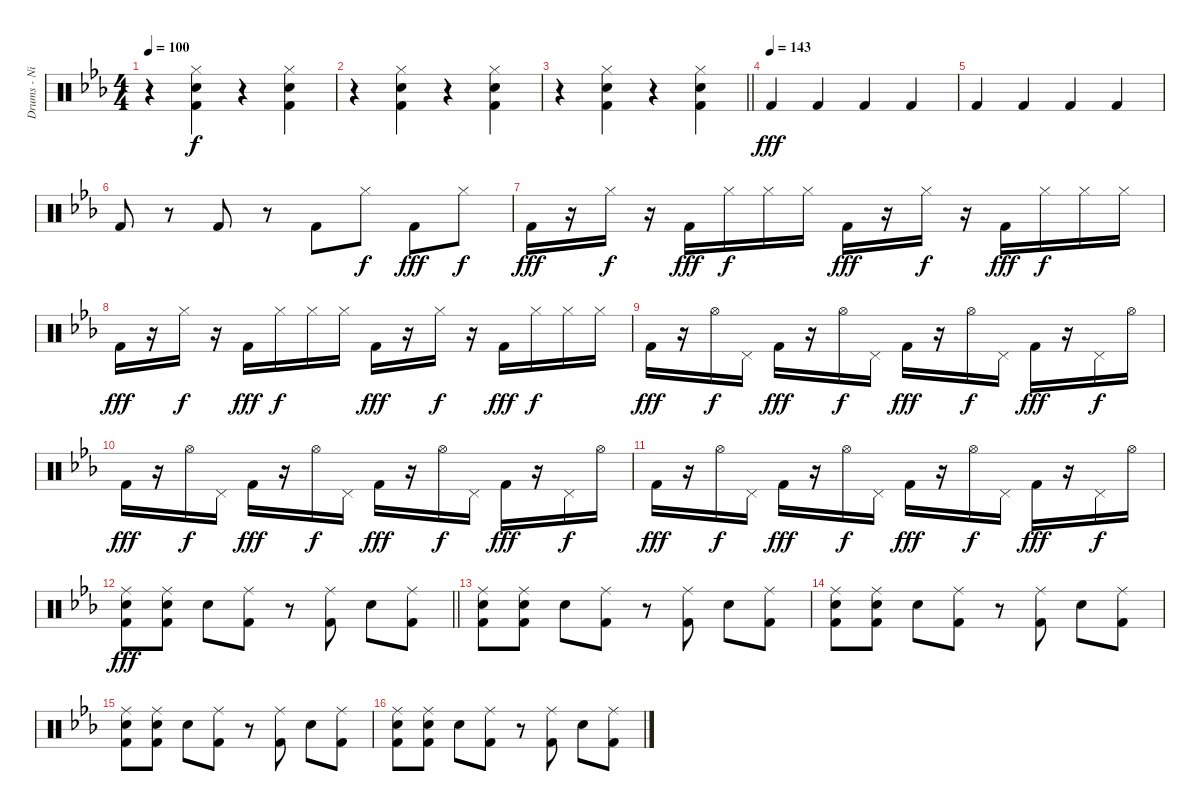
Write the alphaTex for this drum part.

\track ("Drums - Nigel Olsen" "Drums - Ni") {instrument percussion}
\staff {score}
\articulation defaults
\ts (4 4)
\tempo 100
\clef neutral
\ks cminor
r.4{dy f} ("Hi-Hat (closed)" "Snare (hit) 2" "Kick (hit) 2").4 r.4 ("Hi-Hat (closed)" "Snare (hit) 2" "Kick (hit) 2").4 |
r.4 ("Hi-Hat (closed)" "Snare (hit) 2" "Kick (hit) 2").4 r.4 ("Hi-Hat (closed)" "Snare (hit) 2" "Kick (hit) 2").4 |
\barLineRight lightlight
r.4 ("Hi-Hat (closed)" "Snare (hit) 2" "Kick (hit) 2").4 r.4 ("Hi-Hat (closed)" "Snare (hit) 2" "Kick (hit) 2").4 |
\tempo (143)
"Kick (hit) 2".4{dy fff} "Kick (hit) 2".4 "Kick (hit) 2".4 "Kick (hit) 2".4 |
"Kick (hit) 2".4 "Kick (hit) 2".4 "Kick (hit) 2".4 "Kick (hit) 2".4 |
"Kick (hit) 2".8 r.8 "Kick (hit) 2".8 r.8 "Kick (hit) 2".8 "Hi-Hat (closed)".8{dy f} "Kick (hit) 2".8{dy fff} "Hi-Hat (closed)".8{dy f} |
"Kick (hit) 2".16{dy fff} r.16 "Hi-Hat (closed)".16{dy f} r.16 "Kick (hit) 2".16{dy fff} "Hi-Hat (closed)".16{dy f} "Hi-Hat (closed)".16 "Hi-Hat (closed)".16 "Kick (hit) 2".16{dy fff} r.16 "Hi-Hat (closed)".16{dy f} r.16 "Kick (hit) 2".16{dy fff} "Hi-Hat (closed)".16{dy f} "Hi-Hat (closed)".16 "Hi-Hat (closed)".16 |
"Kick (hit) 2".16{dy fff} r.16 "Hi-Hat (closed)".16{dy f} r.16 "Kick (hit) 2".16{dy fff} "Hi-Hat (closed)".16{dy f} "Hi-Hat (closed)".16 "Hi-Hat (closed)".16 "Kick (hit) 2".16{dy fff} r.16 "Hi-Hat (closed)".16{dy f} r.16 "Kick (hit) 2".16{dy fff} "Hi-Hat (closed)".16{dy f} "Hi-Hat (closed)".16 "Hi-Hat (closed)".16 |
"Kick (hit) 2".16{dy fff} r.16 "Hi-Hat (open)".16{dy f} "Pedal Hi-Hat (hit)".16 "Kick (hit) 2".16{dy fff} r.16 "Hi-Hat (open)".16{dy f} "Pedal Hi-Hat (hit)".16 "Kick (hit) 2".16{dy fff} r.16 "Hi-Hat (open)".16{dy f} "Pedal Hi-Hat (hit)".16 "Kick (hit) 2".16{dy fff} r.16 "Pedal Hi-Hat (hit)".16{dy f} "Hi-Hat (open)".16 |
"Kick (hit) 2".16{dy fff} r.16 "Hi-Hat (open)".16{dy f} "Pedal Hi-Hat (hit)".16 "Kick (hit) 2".16{dy fff} r.16 "Hi-Hat (open)".16{dy f} "Pedal Hi-Hat (hit)".16 "Kick (hit) 2".16{dy fff} r.16 "Hi-Hat (open)".16{dy f} "Pedal Hi-Hat (hit)".16 "Kick (hit) 2".16{dy fff} r.16 "Pedal Hi-Hat (hit)".16{dy f} "Hi-Hat (open)".16 |
"Kick (hit) 2".16{dy fff} r.16 "Hi-Hat (open)".16{dy f} "Pedal Hi-Hat (hit)".16 "Kick (hit) 2".16{dy fff} r.16 "Hi-Hat (open)".16{dy f} "Pedal Hi-Hat (hit)".16 "Kick (hit) 2".16{dy fff} r.16 "Hi-Hat (open)".16{dy f} "Pedal Hi-Hat (hit)".16 "Kick (hit) 2".16{dy fff} r.16 "Pedal Hi-Hat (hit)".16{dy f} "Hi-Hat (open)".16 |
\barLineRight lightlight
("Ride (middle)" "Snare (hit) 2" "Kick (hit) 2").8{dy fff volume 16} ("Ride (middle)" "Snare (hit) 2" "Kick (hit) 2").8 "Snare (hit) 2".8 ("Ride (middle)" "Kick (hit) 2").8 r.8 ("Ride (middle)" "Kick (hit) 2").8 "Snare (hit) 2".8 ("Ride (middle)" "Kick (hit) 2").8 |
("Ride (middle)" "Snare (hit) 2" "Kick (hit) 2").8 ("Ride (middle)" "Snare (hit) 2" "Kick (hit) 2").8 "Snare (hit) 2".8 ("Ride (middle)" "Kick (hit) 2").8 r.8 ("Ride (middle)" "Kick (hit) 2").8 "Snare (hit) 2".8 ("Ride (middle)" "Kick (hit) 2").8 |
("Ride (middle)" "Snare (hit) 2" "Kick (hit) 2").8 ("Ride (middle)" "Snare (hit) 2" "Kick (hit) 2").8 "Snare (hit) 2".8 ("Ride (middle)" "Kick (hit) 2").8 r.8 ("Ride (middle)" "Kick (hit) 2").8 "Snare (hit) 2".8 ("Ride (middle)" "Kick (hit) 2").8 |
("Ride (middle)" "Snare (hit) 2" "Kick (hit) 2").8 ("Ride (middle)" "Snare (hit) 2" "Kick (hit) 2").8 "Snare (hit) 2".8 ("Ride (middle)" "Kick (hit) 2").8 r.8 ("Ride (middle)" "Kick (hit) 2").8 "Snare (hit) 2".8 ("Ride (middle)" "Kick (hit) 2").8 |
("Ride (middle)" "Snare (hit) 2" "Kick (hit) 2").8 ("Ride (middle)" "Snare (hit) 2" "Kick (hit) 2").8 "Snare (hit) 2".8 ("Ride (middle)" "Kick (hit) 2").8 r.8 ("Ride (middle)" "Kick (hit) 2").8 "Snare (hit) 2".8 ("Ride (middle)" "Kick (hit) 2").8
